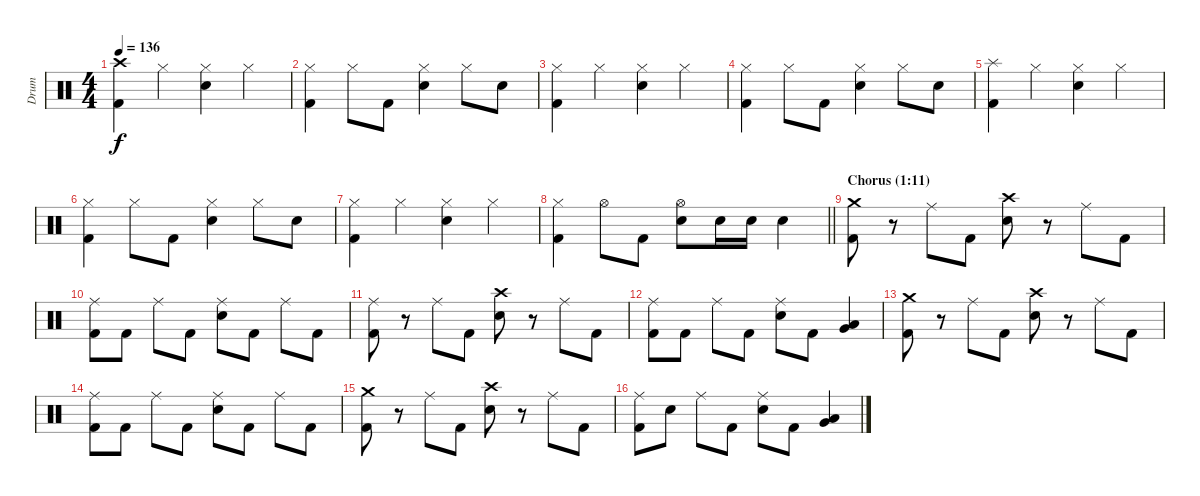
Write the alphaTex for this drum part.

\track ("Drum" "Drum") {instrument percussion}
\staff {score}
\articulation defaults
\ts (4 4)
\tempo 136
\clef neutral
\ks c
("Crash high (hit)" "Kick (hit) 2").4{dy f} "Hi-Hat (closed)".4 ("Hi-Hat (closed)" "Snare (hit) 2").4 "Hi-Hat (closed)".4 |
("Hi-Hat (closed)" "Kick (hit) 2").4 "Hi-Hat (closed)".8 "Kick (hit) 2".8 ("Hi-Hat (closed)" "Snare (hit) 2").4 "Hi-Hat (closed)".8 "Snare (hit) 2".8 |
("Hi-Hat (closed)" "Kick (hit) 2").4 "Hi-Hat (closed)".4 ("Hi-Hat (closed)" "Snare (hit) 2").4 "Hi-Hat (closed)".4 |
("Hi-Hat (closed)" "Kick (hit) 2").4 "Hi-Hat (closed)".8 "Kick (hit) 2".8 ("Hi-Hat (closed)" "Snare (hit) 2").4 "Hi-Hat (closed)".8 "Snare (hit) 2".8 |
("Splash (hit)" "Kick (hit) 2").4 "Hi-Hat (closed)".4 ("Hi-Hat (closed)" "Snare (hit) 2").4 "Hi-Hat (closed)".4 |
("Hi-Hat (closed)" "Kick (hit) 2").4 "Hi-Hat (closed)".8 "Kick (hit) 2".8 ("Hi-Hat (closed)" "Snare (hit) 2").4 "Hi-Hat (closed)".8 "Snare (hit) 2".8 |
("Hi-Hat (closed)" "Kick (hit) 2").4 "Hi-Hat (closed)".4 ("Hi-Hat (closed)" "Snare (hit) 2").4 "Hi-Hat (closed)".4 |
\barLineRight lightlight
("Hi-Hat (closed)" "Kick (hit) 2").4 "Hi-Hat (open)".8 "Kick (hit) 2".8 ("Hi-Hat (open)" "Snare (hit) 2").8 "Snare (hit) 2".16 "Snare (hit) 2".16 "Snare (hit) 2".4 |
\section ("" "Chorus (1:11)")
("Crash medium (hit)" "Kick (hit) 2").8 r.8 "Ride (middle)".8 "Kick (hit) 2".8 ("Crash high (hit)" "Snare (hit) 2").8 r.8 "Ride (middle)".8 "Kick (hit) 2".8 |
("Ride (middle)" "Kick (hit) 2").8 "Kick (hit) 2".8 "Ride (middle)".8 "Kick (hit) 2".8 ("Ride (middle)" "Snare (hit) 2").8 "Kick (hit) 2".8 "Ride (middle)".8 "Kick (hit) 2".8 |
("Ride (middle)" "Kick (hit) 2").8 r.8 "Ride (middle)".8 "Kick (hit) 2".8 ("Crash high (hit)" "Snare (hit) 2").8 r.8 "Ride (middle)".8 "Kick (hit) 2".8 |
("Ride (middle)" "Kick (hit) 2").8 "Kick (hit) 2".8 "Ride (middle)".8 "Kick (hit) 2".8 ("Ride (middle)" "Snare (hit) 2").8 "Kick (hit) 2".8 ("Very Low Tom (hit)" "Low Floor Tom (hit)").4 |
("Crash medium (hit)" "Kick (hit) 2").8 r.8 "Ride (middle)".8 "Kick (hit) 2".8 ("Crash high (hit)" "Snare (hit) 2").8 r.8 "Ride (middle)".8 "Kick (hit) 2".8 |
("Ride (middle)" "Kick (hit) 2").8 "Kick (hit) 2".8 "Ride (middle)".8 "Kick (hit) 2".8 ("Ride (middle)" "Snare (hit) 2").8 "Kick (hit) 2".8 "Ride (middle)".8 "Kick (hit) 2".8 |
("Crash medium (hit)" "Kick (hit) 2").8 r.8 "Ride (middle)".8 "Kick (hit) 2".8 ("Crash high (hit)" "Snare (hit) 2").8 r.8 "Ride (middle)".8 "Kick (hit) 2".8 |
("Ride (middle)" "Kick (hit) 2").8 "Snare (hit) 2".8 "Ride (middle)".8 "Kick (hit) 2".8 ("Ride (middle)" "Snare (hit) 2").8 "Kick (hit) 2".8 ("Very Low Tom (hit)" "Low Floor Tom (hit)").4
